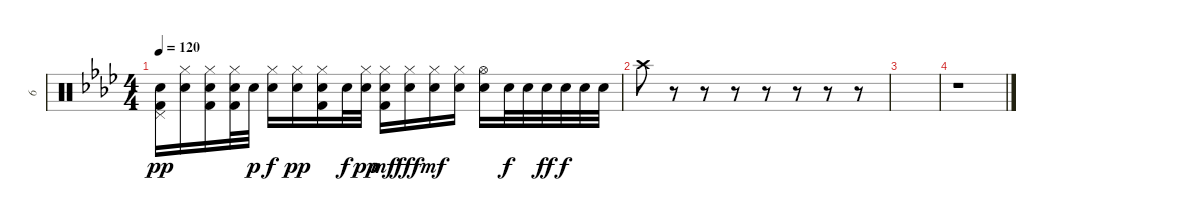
\track ("6" "6") {instrument percussion}
\staff {score}
\articulation defaults
\ts (4 4)
\tempo 120
\clef neutral
\ks ab
("Pedal Hi-Hat (hit)" "Electric Snare (hit)" "Kick (hit) 2").16{dy pp} ("Hi-Hat (closed)" "Electric Snare (hit)").16 ("Hi-Hat (closed)" "Electric Snare (hit)" "Kick (hit) 2").16 ("Hi-Hat (closed)" "Electric Snare (hit)" "Kick (hit) 2").32 "Electric Snare (hit)".32{dy p} ("Hi-Hat (closed)" "Electric Snare (hit)").16{dy f} ("Hi-Hat (closed)" "Electric Snare (hit)").16{dy pp} ("Hi-Hat (closed)" "Electric Snare (hit)" "Kick (hit) 2").16 "Electric Snare (hit)".32{dy f} ("Hi-Hat (closed)" "Electric Snare (hit)").32{dy pp} ("Hi-Hat (closed)" "Electric Snare (hit)" "Kick (hit) 2").16{dy mf} ("Hi-Hat (closed)" "Electric Snare (hit)").16{dy fff} ("Hi-Hat (closed)" "Electric Snare (hit)").16{dy mf} ("Hi-Hat (closed)" "Electric Snare (hit)").16 ("Hi-Hat (open)" "Electric Snare (hit)").16 "Electric Snare (hit)".32{dy f} "Electric Snare (hit)".32 "Electric Snare (hit)".32{dy ff} "Electric Snare (hit)".32{dy f} "Electric Snare (hit)".32 "Electric Snare (hit)".32 |
"Crash high (hit)".8 r.8 r.8 r.8 r.8 r.8 r.8 r.8 |
|
r.1
